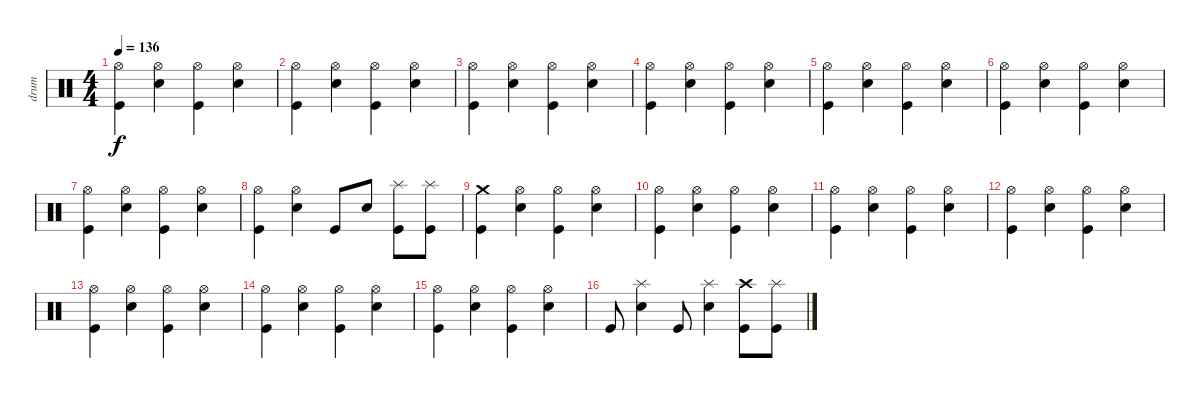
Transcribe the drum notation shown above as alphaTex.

\track ("drum" "drum") {instrument percussion}
\staff {score}
\articulation defaults
\ts (4 4)
\tempo 136
\clef neutral
\ks c
("Kick (hit)" "Hi-Hat (open)").4{dy f} ("Electric Snare (hit)" "Hi-Hat (open)").4 ("Kick (hit)" "Hi-Hat (open)").4 ("Electric Snare (hit)" "Hi-Hat (open)").4 |
("Kick (hit)" "Hi-Hat (open)").4 ("Electric Snare (hit)" "Hi-Hat (open)").4 ("Kick (hit)" "Hi-Hat (open)").4 ("Electric Snare (hit)" "Hi-Hat (open)").4 |
("Kick (hit)" "Hi-Hat (open)").4 ("Electric Snare (hit)" "Hi-Hat (open)").4 ("Kick (hit)" "Hi-Hat (open)").4 ("Electric Snare (hit)" "Hi-Hat (open)").4 |
("Kick (hit)" "Hi-Hat (open)").4 ("Electric Snare (hit)" "Hi-Hat (open)").4 ("Kick (hit)" "Hi-Hat (open)").4 ("Electric Snare (hit)" "Hi-Hat (open)").4 |
("Kick (hit)" "Hi-Hat (open)").4 ("Electric Snare (hit)" "Hi-Hat (open)").4 ("Kick (hit)" "Hi-Hat (open)").4 ("Electric Snare (hit)" "Hi-Hat (open)").4 |
("Kick (hit)" "Hi-Hat (open)").4 ("Electric Snare (hit)" "Hi-Hat (open)").4 ("Kick (hit)" "Hi-Hat (open)").4 ("Electric Snare (hit)" "Hi-Hat (open)").4 |
("Kick (hit)" "Hi-Hat (open)").4 ("Electric Snare (hit)" "Hi-Hat (open)").4 ("Kick (hit)" "Hi-Hat (open)").4 ("Electric Snare (hit)" "Hi-Hat (open)").4 |
("Kick (hit)" "Hi-Hat (open)").4 ("Electric Snare (hit)" "Hi-Hat (open)").4 "Kick (hit)".8 "Electric Snare (hit)".8 ("Kick (hit)" "Splash (hit)").8 ("Kick (hit)" "Splash (hit)").8 |
("Kick (hit)" "Crash medium (hit)").4 ("Electric Snare (hit)" "Hi-Hat (open)").4 ("Kick (hit)" "Hi-Hat (open)").4 ("Electric Snare (hit)" "Hi-Hat (open)").4 |
("Kick (hit)" "Hi-Hat (open)").4 ("Electric Snare (hit)" "Hi-Hat (open)").4 ("Kick (hit)" "Hi-Hat (open)").4 ("Electric Snare (hit)" "Hi-Hat (open)").4 |
("Kick (hit)" "Hi-Hat (open)").4 ("Electric Snare (hit)" "Hi-Hat (open)").4 ("Kick (hit)" "Hi-Hat (open)").4 ("Electric Snare (hit)" "Hi-Hat (open)").4 |
("Kick (hit)" "Hi-Hat (open)").4 ("Electric Snare (hit)" "Hi-Hat (open)").4 ("Kick (hit)" "Hi-Hat (open)").4 ("Electric Snare (hit)" "Hi-Hat (open)").4 |
("Kick (hit)" "Hi-Hat (open)").4 ("Electric Snare (hit)" "Hi-Hat (open)").4 ("Kick (hit)" "Hi-Hat (open)").4 ("Electric Snare (hit)" "Hi-Hat (open)").4 |
("Kick (hit)" "Hi-Hat (open)").4 ("Electric Snare (hit)" "Hi-Hat (open)").4 ("Kick (hit)" "Hi-Hat (open)").4 ("Electric Snare (hit)" "Hi-Hat (open)").4 |
("Kick (hit)" "Hi-Hat (open)").4 ("Electric Snare (hit)" "Hi-Hat (open)").4 ("Kick (hit)" "Hi-Hat (open)").4 ("Electric Snare (hit)" "Hi-Hat (open)").4 |
"Kick (hit)".8 ("Electric Snare (hit)" "Splash (hit)").4 "Kick (hit)".8 ("Electric Snare (hit)" "Splash (hit)").4 ("Kick (hit)" "Crash high (hit)").8 ("Kick (hit)" "Splash (hit)").8
